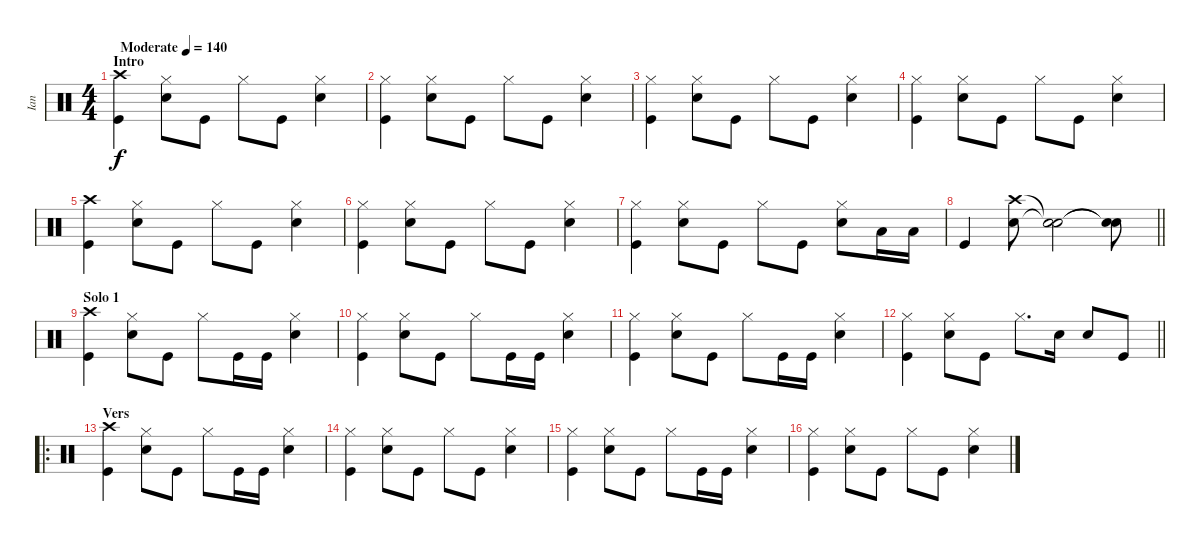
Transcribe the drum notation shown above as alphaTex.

\track ("Ian" "Ian") {instrument percussion}
\staff {score}
\articulation defaults
\ts (4 4)
\section ("" "Intro")
\tempo (140 "Moderate")
\clef neutral
\ks c
("Crash high (hit)" "Kick (hit)").4{dy f} ("Hi-Hat (closed)" "Snare (hit) 2").8 "Kick (hit)".8 "Hi-Hat (closed)".8 "Kick (hit)".8 ("Hi-Hat (closed)" "Snare (hit) 2").4 |
("Hi-Hat (closed)" "Kick (hit)").4 ("Hi-Hat (closed)" "Snare (hit) 2").8 "Kick (hit)".8 "Hi-Hat (closed)".8 "Kick (hit)".8 ("Hi-Hat (closed)" "Snare (hit) 2").4 |
("Hi-Hat (closed)" "Kick (hit)").4 ("Hi-Hat (closed)" "Snare (hit) 2").8 "Kick (hit)".8 "Hi-Hat (closed)".8 "Kick (hit)".8 ("Hi-Hat (closed)" "Snare (hit) 2").4 |
("Hi-Hat (closed)" "Kick (hit)").4 ("Hi-Hat (closed)" "Snare (hit) 2").8 "Kick (hit)".8 "Hi-Hat (closed)".8 "Kick (hit)".8 ("Hi-Hat (closed)" "Snare (hit) 2").4 |
("Crash high (hit)" "Kick (hit)").4 ("Hi-Hat (closed)" "Snare (hit) 2").8 "Kick (hit)".8 "Hi-Hat (closed)".8 "Kick (hit)".8 ("Hi-Hat (closed)" "Snare (hit) 2").4 |
("Hi-Hat (closed)" "Kick (hit)").4 ("Hi-Hat (closed)" "Snare (hit) 2").8 "Kick (hit)".8 "Hi-Hat (closed)".8 "Kick (hit)".8 ("Hi-Hat (closed)" "Snare (hit) 2").4 |
("Hi-Hat (closed)" "Kick (hit)").4 ("Hi-Hat (closed)" "Snare (hit) 2").8 "Kick (hit)".8 "Hi-Hat (closed)".8 "Kick (hit)".8 ("Hi-Hat (closed)" "Snare (hit) 2").8 "Low Tom (hit)".16 "Low Tom (hit)".16 |
\barLineRight lightlight "Kick (hit)".4
("Crash high (hit)" "Snare (hit) 2").8 ("Snare (hit)"{t} "Snare (hit)"{t}).2 ("Snare (hit)"{t} "Snare (hit)"{t}).8 |
\section ("" "Solo 1")
("Crash high (hit)" "Kick (hit)").4 ("Hi-Hat (closed)" "Snare (hit) 2").8 "Kick (hit)".8 "Hi-Hat (closed)".8 "Kick (hit)".16 "Kick (hit)".16 ("Hi-Hat (closed)" "Snare (hit) 2").4 |
("Hi-Hat (closed)" "Kick (hit)").4 ("Hi-Hat (closed)" "Snare (hit) 2").8 "Kick (hit)".8 "Hi-Hat (closed)".8 "Kick (hit)".16 "Kick (hit)".16 ("Hi-Hat (closed)" "Snare (hit) 2").4 |
("Hi-Hat (closed)" "Kick (hit)").4 ("Hi-Hat (closed)" "Snare (hit) 2").8 "Kick (hit)".8 "Hi-Hat (closed)".8 "Kick (hit)".16 "Kick (hit)".16 ("Hi-Hat (closed)" "Snare (hit) 2").4 |
\barLineRight lightlight
("Hi-Hat (closed)" "Kick (hit)").4 ("Hi-Hat (closed)" "Snare (hit) 2").8 "Kick (hit)".8 "Hi-Hat (closed)".8{d} "Snare (hit) 2".16 "Snare (hit) 2".8 "Kick (hit)".8 |
\ro
\section ("" "Vers")
("Crash high (hit)" "Kick (hit)").4 ("Hi-Hat (closed)" "Snare (hit) 2").8 "Kick (hit)".8 "Hi-Hat (closed)".8 "Kick (hit)".16 "Kick (hit)".16 ("Hi-Hat (closed)" "Snare (hit) 2").4 |
("Hi-Hat (closed)" "Kick (hit)").4 ("Hi-Hat (closed)" "Snare (hit) 2").8 "Kick (hit)".8 "Hi-Hat (closed)".8 "Kick (hit)".8 ("Hi-Hat (closed)" "Snare (hit) 2").4 |
("Hi-Hat (closed)" "Kick (hit)").4 ("Hi-Hat (closed)" "Snare (hit) 2").8 "Kick (hit)".8 "Hi-Hat (closed)".8 "Kick (hit)".16 "Kick (hit)".16 ("Hi-Hat (closed)" "Snare (hit) 2").4 |
("Hi-Hat (closed)" "Kick (hit)").4 ("Hi-Hat (closed)" "Snare (hit) 2").8 "Kick (hit)".8 "Hi-Hat (closed)".8 "Kick (hit)".8 ("Hi-Hat (closed)" "Snare (hit) 2").4
